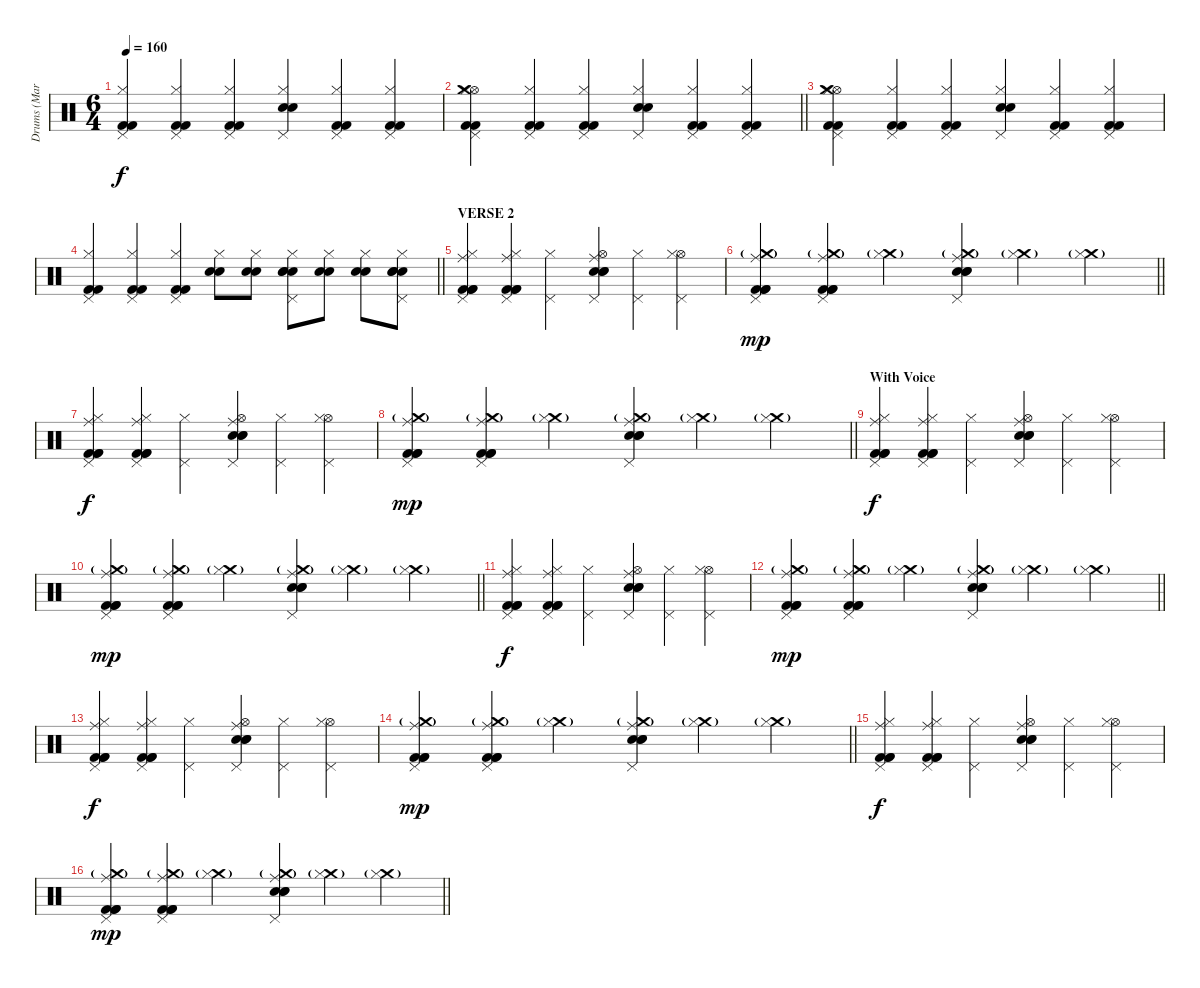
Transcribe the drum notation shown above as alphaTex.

\track ("Drums (Marc Allen)" "Drums (Mar") {instrument percussion}
\staff {score}
\articulation defaults
\ts (6 4)
\tempo 160
\clef neutral
\ks c
("Pedal Hi-Hat (hit)" "Hi-Hat (closed)" "Kick (hit) 2" "Kick (hit) 2").4{dy f} ("Pedal Hi-Hat (hit)" "Hi-Hat (closed)" "Kick (hit) 2" "Kick (hit) 2").4 ("Pedal Hi-Hat (hit)" "Hi-Hat (closed)" "Kick (hit) 2" "Kick (hit) 2").4 ("Pedal Hi-Hat (hit)" "Hi-Hat (closed)" "Electric Snare (hit)" "Electric Snare (hit)").4 ("Pedal Hi-Hat (hit)" "Hi-Hat (closed)" "Kick (hit) 2" "Kick (hit) 2").4 ("Pedal Hi-Hat (hit)" "Hi-Hat (closed)" "Kick (hit) 2" "Kick (hit) 2").4 |
\barLineRight lightlight
("Pedal Hi-Hat (hit)" "Hi-Hat (open)" "Hi-Hat (closed)" "Crash medium (hit)" "Kick (hit) 2" "Kick (hit) 2").4 ("Pedal Hi-Hat (hit)" "Hi-Hat (closed)" "Kick (hit) 2" "Kick (hit) 2").4 ("Pedal Hi-Hat (hit)" "Hi-Hat (closed)" "Kick (hit) 2" "Kick (hit) 2").4 ("Pedal Hi-Hat (hit)" "Hi-Hat (closed)" "Electric Snare (hit)" "Electric Snare (hit)").4 ("Pedal Hi-Hat (hit)" "Hi-Hat (closed)" "Kick (hit) 2" "Kick (hit) 2").4 ("Pedal Hi-Hat (hit)" "Hi-Hat (closed)" "Kick (hit) 2" "Kick (hit) 2").4 |
("Pedal Hi-Hat (hit)" "Hi-Hat (open)" "Hi-Hat (closed)" "Crash medium (hit)" "Kick (hit) 2" "Kick (hit) 2").4 ("Pedal Hi-Hat (hit)" "Hi-Hat (closed)" "Kick (hit) 2" "Kick (hit) 2").4 ("Pedal Hi-Hat (hit)" "Hi-Hat (closed)" "Kick (hit) 2" "Kick (hit) 2").4 ("Pedal Hi-Hat (hit)" "Hi-Hat (closed)" "Electric Snare (hit)" "Electric Snare (hit)").4 ("Pedal Hi-Hat (hit)" "Hi-Hat (closed)" "Kick (hit) 2" "Kick (hit) 2").4 ("Pedal Hi-Hat (hit)" "Hi-Hat (closed)" "Kick (hit) 2" "Kick (hit) 2").4 |
\barLineRight lightlight
("Pedal Hi-Hat (hit)" "Hi-Hat (closed)" "Kick (hit) 2" "Kick (hit) 2").4 ("Pedal Hi-Hat (hit)" "Hi-Hat (closed)" "Kick (hit) 2" "Kick (hit) 2").4 ("Pedal Hi-Hat (hit)" "Hi-Hat (closed)" "Kick (hit) 2" "Kick (hit) 2").4 ("Hi-Hat (closed)" "Electric Snare (hit)" "Electric Snare (hit)").8 ("Hi-Hat (closed)" "Electric Snare (hit)" "Electric Snare (hit)").8 ("Hi-Hat (closed)" "Pedal Hi-Hat (hit)" "Electric Snare (hit)" "Electric Snare (hit)" "Snare (hit) 2").8 ("Hi-Hat (closed)" "Electric Snare (hit)" "Electric Snare (hit)").8 ("Hi-Hat (closed)" "Electric Snare (hit)" "Electric Snare (hit)").8 ("Hi-Hat (closed)" "Pedal Hi-Hat (hit)" "Electric Snare (hit)" "Electric Snare (hit)" "Snare (hit) 2").8 |
\section ("" "VERSE 2")
("Hi-Hat (closed)" "Pedal Hi-Hat (hit)" "Ride (middle)" "Kick (hit) 2" "Kick (hit) 2" "Kick (hit) 2").4 ("Hi-Hat (closed)" "Pedal Hi-Hat (hit)" "Ride (middle)" "Kick (hit) 2" "Kick (hit) 2" "Kick (hit) 2").4 ("Hi-Hat (closed)" "Pedal Hi-Hat (hit)").4 ("Hi-Hat (open)" "Pedal Hi-Hat (hit)" "Ride (middle)" "Electric Snare (hit)" "Electric Snare (hit)" "Electric Snare (hit)").4 ("Hi-Hat (closed)" "Pedal Hi-Hat (hit)").4 ("Hi-Hat (open)" "Hi-Hat (closed)" "Pedal Hi-Hat (hit)").4 |
\barLineRight lightlight
("Crash medium (hit)"{g} "Pedal Hi-Hat (hit)" "Ride (middle)" "Kick (hit) 2" "Kick (hit) 2" "Kick (hit) 2").4{dy mp} ("Crash medium (hit)"{g} "Pedal Hi-Hat (hit)" "Ride (middle)" "Kick (hit) 2" "Kick (hit) 2" "Kick (hit) 2").4 ("Crash medium (hit)"{g} "Hi-Hat (closed)").4 ("Crash medium (hit)"{g} "Pedal Hi-Hat (hit)" "Ride (middle)" "Electric Snare (hit)" "Electric Snare (hit)" "Electric Snare (hit)").4 ("Crash medium (hit)"{g} "Hi-Hat (closed)").4 ("Crash medium (hit)"{g} "Hi-Hat (closed)").4 |
("Hi-Hat (closed)" "Pedal Hi-Hat (hit)" "Ride (middle)" "Kick (hit) 2" "Kick (hit) 2" "Kick (hit) 2").4{dy f} ("Hi-Hat (closed)" "Pedal Hi-Hat (hit)" "Ride (middle)" "Kick (hit) 2" "Kick (hit) 2" "Kick (hit) 2").4 ("Hi-Hat (closed)" "Pedal Hi-Hat (hit)").4 ("Hi-Hat (open)" "Pedal Hi-Hat (hit)" "Ride (middle)" "Electric Snare (hit)" "Electric Snare (hit)" "Electric Snare (hit)").4 ("Hi-Hat (closed)" "Pedal Hi-Hat (hit)").4 ("Hi-Hat (open)" "Hi-Hat (closed)" "Pedal Hi-Hat (hit)").4 |
\barLineRight lightlight
("Crash medium (hit)"{g} "Pedal Hi-Hat (hit)" "Ride (middle)" "Kick (hit) 2" "Kick (hit) 2" "Kick (hit) 2").4{dy mp} ("Crash medium (hit)"{g} "Pedal Hi-Hat (hit)" "Ride (middle)" "Kick (hit) 2" "Kick (hit) 2" "Kick (hit) 2").4 ("Crash medium (hit)"{g} "Hi-Hat (closed)").4 ("Crash medium (hit)"{g} "Pedal Hi-Hat (hit)" "Ride (middle)" "Electric Snare (hit)" "Electric Snare (hit)" "Electric Snare (hit)").4 ("Crash medium (hit)"{g} "Hi-Hat (closed)").4 ("Crash medium (hit)"{g} "Hi-Hat (closed)").4 |
\section ("" "With Voice")
("Hi-Hat (closed)" "Pedal Hi-Hat (hit)" "Ride (middle)" "Kick (hit) 2" "Kick (hit) 2" "Kick (hit) 2").4{dy f} ("Hi-Hat (closed)" "Pedal Hi-Hat (hit)" "Ride (middle)" "Kick (hit) 2" "Kick (hit) 2" "Kick (hit) 2").4 ("Hi-Hat (closed)" "Pedal Hi-Hat (hit)").4 ("Hi-Hat (open)" "Pedal Hi-Hat (hit)" "Ride (middle)" "Electric Snare (hit)" "Electric Snare (hit)" "Electric Snare (hit)").4 ("Hi-Hat (closed)" "Pedal Hi-Hat (hit)").4 ("Hi-Hat (open)" "Hi-Hat (closed)" "Pedal Hi-Hat (hit)").4 |
\barLineRight lightlight
("Crash medium (hit)"{g} "Pedal Hi-Hat (hit)" "Ride (middle)" "Kick (hit) 2" "Kick (hit) 2" "Kick (hit) 2").4{dy mp} ("Crash medium (hit)"{g} "Pedal Hi-Hat (hit)" "Ride (middle)" "Kick (hit) 2" "Kick (hit) 2" "Kick (hit) 2").4 ("Crash medium (hit)"{g} "Hi-Hat (closed)").4 ("Crash medium (hit)"{g} "Pedal Hi-Hat (hit)" "Ride (middle)" "Electric Snare (hit)" "Electric Snare (hit)" "Electric Snare (hit)").4 ("Crash medium (hit)"{g} "Hi-Hat (closed)").4 ("Crash medium (hit)"{g} "Hi-Hat (closed)").4 |
("Hi-Hat (closed)" "Pedal Hi-Hat (hit)" "Ride (middle)" "Kick (hit) 2" "Kick (hit) 2" "Kick (hit) 2").4{dy f} ("Hi-Hat (closed)" "Pedal Hi-Hat (hit)" "Ride (middle)" "Kick (hit) 2" "Kick (hit) 2" "Kick (hit) 2").4 ("Hi-Hat (closed)" "Pedal Hi-Hat (hit)").4 ("Hi-Hat (open)" "Pedal Hi-Hat (hit)" "Ride (middle)" "Electric Snare (hit)" "Electric Snare (hit)" "Electric Snare (hit)").4 ("Hi-Hat (closed)" "Pedal Hi-Hat (hit)").4 ("Hi-Hat (open)" "Hi-Hat (closed)" "Pedal Hi-Hat (hit)").4 |
\barLineRight lightlight
("Crash medium (hit)"{g} "Pedal Hi-Hat (hit)" "Ride (middle)" "Kick (hit) 2" "Kick (hit) 2" "Kick (hit) 2").4{dy mp} ("Crash medium (hit)"{g} "Pedal Hi-Hat (hit)" "Ride (middle)" "Kick (hit) 2" "Kick (hit) 2" "Kick (hit) 2").4 ("Crash medium (hit)"{g} "Hi-Hat (closed)").4 ("Crash medium (hit)"{g} "Pedal Hi-Hat (hit)" "Ride (middle)" "Electric Snare (hit)" "Electric Snare (hit)" "Electric Snare (hit)").4 ("Crash medium (hit)"{g} "Hi-Hat (closed)").4 ("Crash medium (hit)"{g} "Hi-Hat (closed)").4 |
("Hi-Hat (closed)" "Pedal Hi-Hat (hit)" "Ride (middle)" "Kick (hit) 2" "Kick (hit) 2" "Kick (hit) 2").4{dy f} ("Hi-Hat (closed)" "Pedal Hi-Hat (hit)" "Ride (middle)" "Kick (hit) 2" "Kick (hit) 2" "Kick (hit) 2").4 ("Hi-Hat (closed)" "Pedal Hi-Hat (hit)").4 ("Hi-Hat (open)" "Pedal Hi-Hat (hit)" "Ride (middle)" "Electric Snare (hit)" "Electric Snare (hit)" "Electric Snare (hit)").4 ("Hi-Hat (closed)" "Pedal Hi-Hat (hit)").4 ("Hi-Hat (open)" "Hi-Hat (closed)" "Pedal Hi-Hat (hit)").4 |
\barLineRight lightlight
("Crash medium (hit)"{g} "Pedal Hi-Hat (hit)" "Ride (middle)" "Kick (hit) 2" "Kick (hit) 2" "Kick (hit) 2").4{dy mp} ("Crash medium (hit)"{g} "Pedal Hi-Hat (hit)" "Ride (middle)" "Kick (hit) 2" "Kick (hit) 2" "Kick (hit) 2").4 ("Crash medium (hit)"{g} "Hi-Hat (closed)").4 ("Crash medium (hit)"{g} "Pedal Hi-Hat (hit)" "Ride (middle)" "Electric Snare (hit)" "Electric Snare (hit)" "Electric Snare (hit)").4 ("Crash medium (hit)"{g} "Hi-Hat (closed)").4 ("Crash medium (hit)"{g} "Hi-Hat (closed)").4 |
("Hi-Hat (closed)" "Pedal Hi-Hat (hit)" "Ride (middle)" "Kick (hit) 2" "Kick (hit) 2" "Kick (hit) 2").4{dy f} ("Hi-Hat (closed)" "Pedal Hi-Hat (hit)" "Ride (middle)" "Kick (hit) 2" "Kick (hit) 2" "Kick (hit) 2").4 ("Hi-Hat (closed)" "Pedal Hi-Hat (hit)").4 ("Hi-Hat (open)" "Pedal Hi-Hat (hit)" "Ride (middle)" "Electric Snare (hit)" "Electric Snare (hit)" "Electric Snare (hit)").4 ("Hi-Hat (closed)" "Pedal Hi-Hat (hit)").4 ("Hi-Hat (open)" "Hi-Hat (closed)" "Pedal Hi-Hat (hit)").4 |
\barLineRight lightlight
("Crash medium (hit)"{g} "Pedal Hi-Hat (hit)" "Ride (middle)" "Kick (hit) 2" "Kick (hit) 2" "Kick (hit) 2").4{dy mp} ("Crash medium (hit)"{g} "Pedal Hi-Hat (hit)" "Ride (middle)" "Kick (hit) 2" "Kick (hit) 2" "Kick (hit) 2").4 ("Crash medium (hit)"{g} "Hi-Hat (closed)").4 ("Crash medium (hit)"{g} "Pedal Hi-Hat (hit)" "Ride (middle)" "Electric Snare (hit)" "Electric Snare (hit)" "Electric Snare (hit)").4 ("Crash medium (hit)"{g} "Hi-Hat (closed)").4 ("Crash medium (hit)"{g} "Hi-Hat (closed)").4
